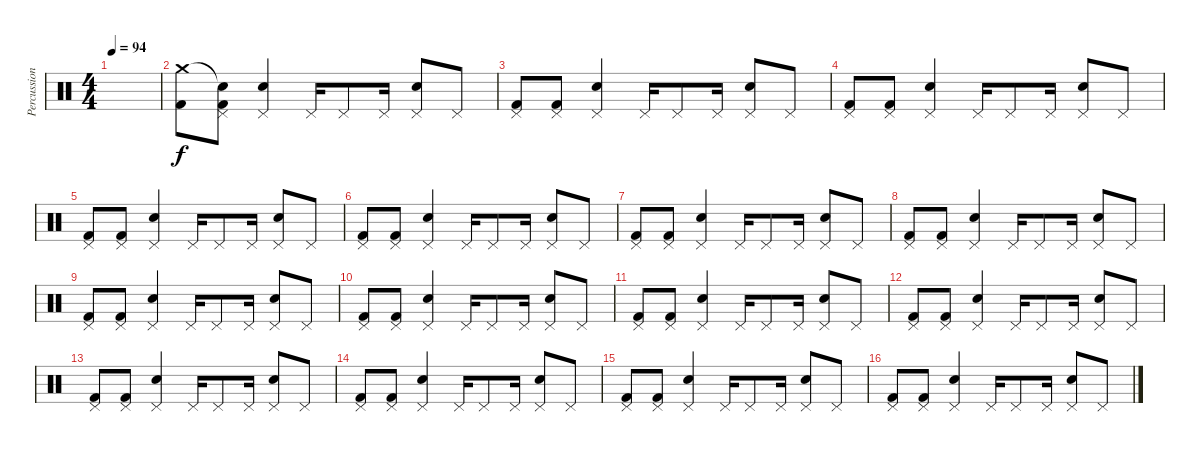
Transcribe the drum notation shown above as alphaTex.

\track ("Percussions" "Percussion") {instrument percussion}
\staff {score}
\articulation defaults
\ts (4 4)
\tempo 94
\clef neutral
\ks c
|
("Crash medium (hit)" "Kick (hit) 2").8 ("Snare (hit)"{t} "Pedal Hi-Hat (hit)" "Kick (hit) 2").8 ("Pedal Hi-Hat (hit)" "Electric Snare (hit)").4 "Pedal Hi-Hat (hit)".16 "Pedal Hi-Hat (hit)".8 "Pedal Hi-Hat (hit)".16 ("Pedal Hi-Hat (hit)" "Electric Snare (hit)").8 "Pedal Hi-Hat (hit)".8 |
("Pedal Hi-Hat (hit)" "Kick (hit) 2").8 ("Pedal Hi-Hat (hit)" "Kick (hit) 2").8 ("Pedal Hi-Hat (hit)" "Electric Snare (hit)").4 "Pedal Hi-Hat (hit)".16 "Pedal Hi-Hat (hit)".8 "Pedal Hi-Hat (hit)".16 ("Pedal Hi-Hat (hit)" "Electric Snare (hit)").8 "Pedal Hi-Hat (hit)".8 |
("Pedal Hi-Hat (hit)" "Kick (hit) 2").8 ("Pedal Hi-Hat (hit)" "Kick (hit) 2").8 ("Pedal Hi-Hat (hit)" "Electric Snare (hit)").4 "Pedal Hi-Hat (hit)".16 "Pedal Hi-Hat (hit)".8 "Pedal Hi-Hat (hit)".16 ("Pedal Hi-Hat (hit)" "Electric Snare (hit)").8 "Pedal Hi-Hat (hit)".8 |
("Pedal Hi-Hat (hit)" "Kick (hit) 2").8 ("Pedal Hi-Hat (hit)" "Kick (hit) 2").8 ("Pedal Hi-Hat (hit)" "Electric Snare (hit)").4 "Pedal Hi-Hat (hit)".16 "Pedal Hi-Hat (hit)".8 "Pedal Hi-Hat (hit)".16 ("Pedal Hi-Hat (hit)" "Electric Snare (hit)").8 "Pedal Hi-Hat (hit)".8 |
("Pedal Hi-Hat (hit)" "Kick (hit) 2").8 ("Pedal Hi-Hat (hit)" "Kick (hit) 2").8 ("Pedal Hi-Hat (hit)" "Electric Snare (hit)").4 "Pedal Hi-Hat (hit)".16 "Pedal Hi-Hat (hit)".8 "Pedal Hi-Hat (hit)".16 ("Pedal Hi-Hat (hit)" "Electric Snare (hit)").8 "Pedal Hi-Hat (hit)".8 |
("Pedal Hi-Hat (hit)" "Kick (hit) 2").8 ("Pedal Hi-Hat (hit)" "Kick (hit) 2").8 ("Pedal Hi-Hat (hit)" "Electric Snare (hit)").4 "Pedal Hi-Hat (hit)".16 "Pedal Hi-Hat (hit)".8 "Pedal Hi-Hat (hit)".16 ("Pedal Hi-Hat (hit)" "Electric Snare (hit)").8 "Pedal Hi-Hat (hit)".8 |
("Pedal Hi-Hat (hit)" "Kick (hit) 2").8 ("Pedal Hi-Hat (hit)" "Kick (hit) 2").8 ("Pedal Hi-Hat (hit)" "Electric Snare (hit)").4 "Pedal Hi-Hat (hit)".16 "Pedal Hi-Hat (hit)".8 "Pedal Hi-Hat (hit)".16 ("Pedal Hi-Hat (hit)" "Electric Snare (hit)").8 "Pedal Hi-Hat (hit)".8 |
("Pedal Hi-Hat (hit)" "Kick (hit) 2").8 ("Pedal Hi-Hat (hit)" "Kick (hit) 2").8 ("Pedal Hi-Hat (hit)" "Electric Snare (hit)").4 "Pedal Hi-Hat (hit)".16 "Pedal Hi-Hat (hit)".8 "Pedal Hi-Hat (hit)".16 ("Pedal Hi-Hat (hit)" "Electric Snare (hit)").8 "Pedal Hi-Hat (hit)".8 |
("Pedal Hi-Hat (hit)" "Kick (hit) 2").8 ("Pedal Hi-Hat (hit)" "Kick (hit) 2").8 ("Pedal Hi-Hat (hit)" "Electric Snare (hit)").4 "Pedal Hi-Hat (hit)".16 "Pedal Hi-Hat (hit)".8 "Pedal Hi-Hat (hit)".16 ("Pedal Hi-Hat (hit)" "Electric Snare (hit)").8 "Pedal Hi-Hat (hit)".8 |
("Pedal Hi-Hat (hit)" "Kick (hit) 2").8 ("Pedal Hi-Hat (hit)" "Kick (hit) 2").8 ("Pedal Hi-Hat (hit)" "Electric Snare (hit)").4 "Pedal Hi-Hat (hit)".16 "Pedal Hi-Hat (hit)".8 "Pedal Hi-Hat (hit)".16 ("Pedal Hi-Hat (hit)" "Electric Snare (hit)").8 "Pedal Hi-Hat (hit)".8 |
("Pedal Hi-Hat (hit)" "Kick (hit) 2").8 ("Pedal Hi-Hat (hit)" "Kick (hit) 2").8 ("Pedal Hi-Hat (hit)" "Electric Snare (hit)").4 "Pedal Hi-Hat (hit)".16 "Pedal Hi-Hat (hit)".8 "Pedal Hi-Hat (hit)".16 ("Pedal Hi-Hat (hit)" "Electric Snare (hit)").8 "Pedal Hi-Hat (hit)".8 |
("Pedal Hi-Hat (hit)" "Kick (hit) 2").8 ("Pedal Hi-Hat (hit)" "Kick (hit) 2").8 ("Pedal Hi-Hat (hit)" "Electric Snare (hit)").4 "Pedal Hi-Hat (hit)".16 "Pedal Hi-Hat (hit)".8 "Pedal Hi-Hat (hit)".16 ("Pedal Hi-Hat (hit)" "Electric Snare (hit)").8 "Pedal Hi-Hat (hit)".8 |
("Pedal Hi-Hat (hit)" "Kick (hit) 2").8 ("Pedal Hi-Hat (hit)" "Kick (hit) 2").8 ("Pedal Hi-Hat (hit)" "Electric Snare (hit)").4 "Pedal Hi-Hat (hit)".16 "Pedal Hi-Hat (hit)".8 "Pedal Hi-Hat (hit)".16 ("Pedal Hi-Hat (hit)" "Electric Snare (hit)").8 "Pedal Hi-Hat (hit)".8 |
("Pedal Hi-Hat (hit)" "Kick (hit) 2").8 ("Pedal Hi-Hat (hit)" "Kick (hit) 2").8 ("Pedal Hi-Hat (hit)" "Electric Snare (hit)").4 "Pedal Hi-Hat (hit)".16 "Pedal Hi-Hat (hit)".8 "Pedal Hi-Hat (hit)".16 ("Pedal Hi-Hat (hit)" "Electric Snare (hit)").8 "Pedal Hi-Hat (hit)".8 |
("Pedal Hi-Hat (hit)" "Kick (hit) 2").8 ("Pedal Hi-Hat (hit)" "Kick (hit) 2").8 ("Pedal Hi-Hat (hit)" "Electric Snare (hit)").4 "Pedal Hi-Hat (hit)".16 "Pedal Hi-Hat (hit)".8 "Pedal Hi-Hat (hit)".16 ("Pedal Hi-Hat (hit)" "Electric Snare (hit)").8 "Pedal Hi-Hat (hit)".8
